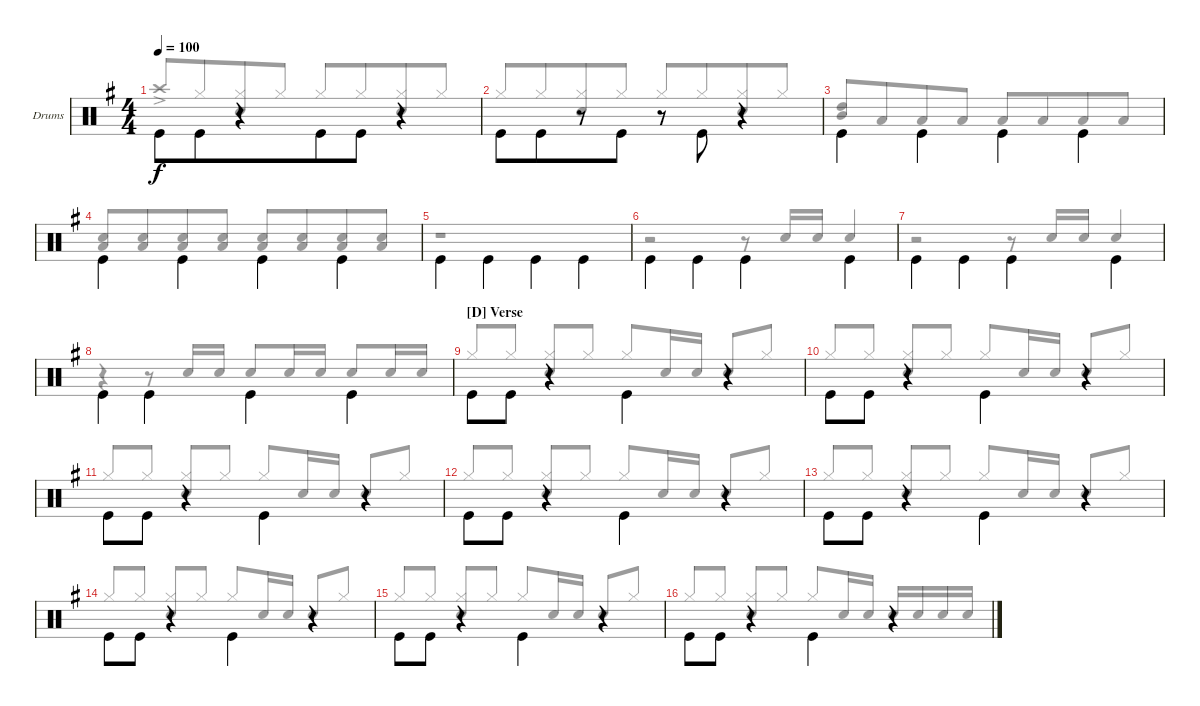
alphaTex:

\bracketExtendMode groupsimilarinstruments
\firstSystemTrackNameOrientation horizontal
\otherSystemsTrackNameOrientation horizontal
\track ("Drum" "Drums") {instrument percussion}
\staff {score}
\articulation defaults
\voice
\ts (4 4)
\tempo 100
\clef neutral
\scale
1.02648
\ks g "Kick (hit)".8{dy f beam invert} "Kick (hit)".8{beam merge}
r.4{beam merge} "Kick (hit)".8{beam invert beam merge} "Kick (hit)".8{beam merge} r.4{beam merge} |
\scale
0.973518 "Kick (hit)".8{beam invert} "Kick (hit)".8{beam merge} r.8{beam merge} "Kick (hit)".8 r.8 "Kick (hit)".8{beam invert} r.4 |
\scale
1.07314 "Kick (hit)".4{beam invert} "Kick (hit)".4{beam invert} "Kick (hit)".4{beam invert} "Kick (hit)".4{beam invert} |
\scale
0.92686 "Kick (hit)".4{beam invert} "Kick (hit)".4{beam invert} "Kick (hit)".4{beam invert} "Kick (hit)".4{beam invert} |
\scale
1.04288 "Kick (hit)".4{beam invert} "Kick (hit)".4{beam invert} "Kick (hit)".4{beam invert} "Kick (hit)".4{beam invert} |
\scale
0.957125 "Kick (hit)".4{beam invert} "Kick (hit)".4{beam invert} "Kick (hit)".4{beam invert} "Kick (hit)".4{beam invert} |
\scale
1.04288 "Kick (hit)".4{beam invert} "Kick (hit)".4{beam invert} "Kick (hit)".4{beam invert} "Kick (hit)".4{beam invert} |
\scale
0.957125 "Kick (hit)".4{beam invert} "Kick (hit)".4{beam invert} "Kick (hit)".4{beam invert} "Kick (hit)".4{beam invert} |
\section ("D" "Verse")
\scale
1.04288 "Kick (hit)".8{beam invert} "Kick (hit)".8 r.4 "Kick (hit)".4{beam invert} r.4 |
\scale
0.957125 "Kick (hit)".8{beam invert} "Kick (hit)".8 r.4 "Kick (hit)".4{beam invert} r.4 |
\scale
1.04288 "Kick (hit)".8{beam invert} "Kick (hit)".8 r.4 "Kick (hit)".4{beam invert} r.4 |
\scale
0.957125 "Kick (hit)".8{beam invert} "Kick (hit)".8 r.4 "Kick (hit)".4{beam invert} r.4 |
\scale
1.04288 "Kick (hit)".8{beam invert} "Kick (hit)".8 r.4 "Kick (hit)".4{beam invert} r.4 |
\scale
0.957125 "Kick (hit)".8{beam invert} "Kick (hit)".8 r.4 "Kick (hit)".4{beam invert} r.4 |
\scale
1.04288 "Kick (hit)".8{beam invert} "Kick (hit)".8 r.4 "Kick (hit)".4{beam invert} r.4 |
\scale
0.957125 "Kick (hit)".8{beam invert} "Kick (hit)".8 r.4 "Kick (hit)".4{beam invert} r.4
\voice
\clef neutral
\ottava regular
\simile none
\scale
1.02648
\ks g "Crash high (hit)"{ac}.8{dy f beam invert beam merge} "Hi-Hat (closed)".8{beam merge}
("Hi-Hat (closed)" "Snare (hit) 2").8{beam merge} "Hi-Hat (closed)".8{beam split} "Hi-Hat (closed)".8{beam invert beam merge} "Hi-Hat (closed)".8{beam merge} ("Hi-Hat (closed)" "Snare (hit) 2").8{beam merge} "Hi-Hat (closed)".8{beam merge} |
\scale
0.973518 "Hi-Hat (closed)".8{beam invert beam merge} "Hi-Hat (closed)".8{beam merge} ("Hi-Hat (closed)" "Snare (hit) 2").8{beam merge} "Hi-Hat (closed)".8{beam split} "Hi-Hat (closed)".8{beam invert beam merge} "Hi-Hat (closed)".8{beam merge} ("Hi-Hat (closed)" "Snare (hit) 2").8{beam merge} "Hi-Hat (closed)".8{beam merge} |
\scale
1.07314 ("High Tom (hit)" "Mid Tom (hit)").8{beam invert beam merge} "Low Tom (hit)".8{beam merge} "Low Tom (hit)".8{beam merge} "Low Tom (hit)".8{beam split} "Low Tom (hit)".8{beam invert beam merge} "Low Tom (hit)".8{beam merge} "Low Tom (hit)".8{beam merge} "Low Tom (hit)".8{beam merge} |
\scale
0.92686 ("Snare (hit) 2" "Low Tom (hit)").8{beam invert beam merge} ("Snare (hit) 2" "Low Tom (hit)").8{beam merge} ("Snare (hit) 2" "Low Tom (hit)").8{beam merge} ("Snare (hit) 2" "Low Tom (hit)").8{beam split} ("Snare (hit) 2" "Low Tom (hit)").8{beam invert beam merge} ("Snare (hit) 2" "Low Tom (hit)").8{beam merge} ("Snare (hit) 2" "Low Tom (hit)").8{beam merge} ("Snare (hit) 2" "Low Tom (hit)").8{beam merge} |
\scale
1.04288 r.1 |
\scale
0.957125 r.2 r.8 "Snare (hit) 2".16{beam invert} "Snare (hit) 2".16 "Snare (hit) 2".4{beam invert} |
\scale
1.04288 r.2 r.8 "Snare (hit) 2".16{beam invert} "Snare (hit) 2".16 "Snare (hit) 2".4{beam invert} |
\scale
0.957125 r.4 r.8 "Snare (hit) 2".16{beam invert} "Snare (hit) 2".16 "Snare (hit) 2".8{beam invert} "Snare (hit) 2".16 "Snare (hit) 2".16 "Snare (hit) 2".8{beam invert} "Snare (hit) 2".16 "Snare (hit) 2".16 |
\scale
1.04288 "Hi-Hat (closed)".8{beam invert} "Hi-Hat (closed)".8 ("Hi-Hat (closed)" "Snare (hit) 2").8{beam invert} "Hi-Hat (closed)".8 "Hi-Hat (closed)".8{beam invert} "Snare (hit) 2".16 "Snare (hit) 2".16 "Snare (hit) 2".8{beam invert} "Hi-Hat (closed)".8 |
\scale
0.957125 "Hi-Hat (closed)".8{beam invert} "Hi-Hat (closed)".8 ("Hi-Hat (closed)" "Snare (hit) 2").8{beam invert} "Hi-Hat (closed)".8 "Hi-Hat (closed)".8{beam invert} "Snare (hit) 2".16 "Snare (hit) 2".16 "Snare (hit) 2".8{beam invert} "Hi-Hat (closed)".8 |
\scale
1.04288 "Hi-Hat (closed)".8{beam invert} "Hi-Hat (closed)".8 ("Hi-Hat (closed)" "Snare (hit) 2").8{beam invert} "Hi-Hat (closed)".8 "Hi-Hat (closed)".8{beam invert} "Snare (hit) 2".16 "Snare (hit) 2".16 "Snare (hit) 2".8{beam invert} "Hi-Hat (closed)".8 |
\scale
0.957125 "Hi-Hat (closed)".8{beam invert} "Hi-Hat (closed)".8 ("Hi-Hat (closed)" "Snare (hit) 2").8{beam invert} "Hi-Hat (closed)".8 "Hi-Hat (closed)".8{beam invert} "Snare (hit) 2".16 "Snare (hit) 2".16 "Snare (hit) 2".8{beam invert} "Hi-Hat (closed)".8 |
\scale
1.04288 "Hi-Hat (closed)".8{beam invert} "Hi-Hat (closed)".8 ("Hi-Hat (closed)" "Snare (hit) 2").8{beam invert} "Hi-Hat (closed)".8 "Hi-Hat (closed)".8{beam invert} "Snare (hit) 2".16 "Snare (hit) 2".16 "Snare (hit) 2".8{beam invert} "Hi-Hat (closed)".8 |
\scale
0.957125 "Hi-Hat (closed)".8{beam invert} "Hi-Hat (closed)".8 ("Hi-Hat (closed)" "Snare (hit) 2").8{beam invert} "Hi-Hat (closed)".8 "Hi-Hat (closed)".8{beam invert} "Snare (hit) 2".16 "Snare (hit) 2".16 "Snare (hit) 2".8{beam invert} "Hi-Hat (closed)".8 |
\scale
1.04288 "Hi-Hat (closed)".8{beam invert} "Hi-Hat (closed)".8 ("Hi-Hat (closed)" "Snare (hit) 2").8{beam invert} "Hi-Hat (closed)".8 "Hi-Hat (closed)".8{beam invert} "Snare (hit) 2".16 "Snare (hit) 2".16 "Snare (hit) 2".8{beam invert} "Hi-Hat (closed)".8 |
\scale
0.957125 "Hi-Hat (closed)".8{beam invert} "Hi-Hat (closed)".8 ("Hi-Hat (closed)" "Snare (hit) 2").8{beam invert} "Hi-Hat (closed)".8 "Hi-Hat (closed)".8{beam invert} "Snare (hit) 2".16 "Snare (hit) 2".16 "Snare (hit) 2".16{beam invert} "Snare (hit) 2".16 "Snare (hit) 2".16 "Snare (hit) 2".16
